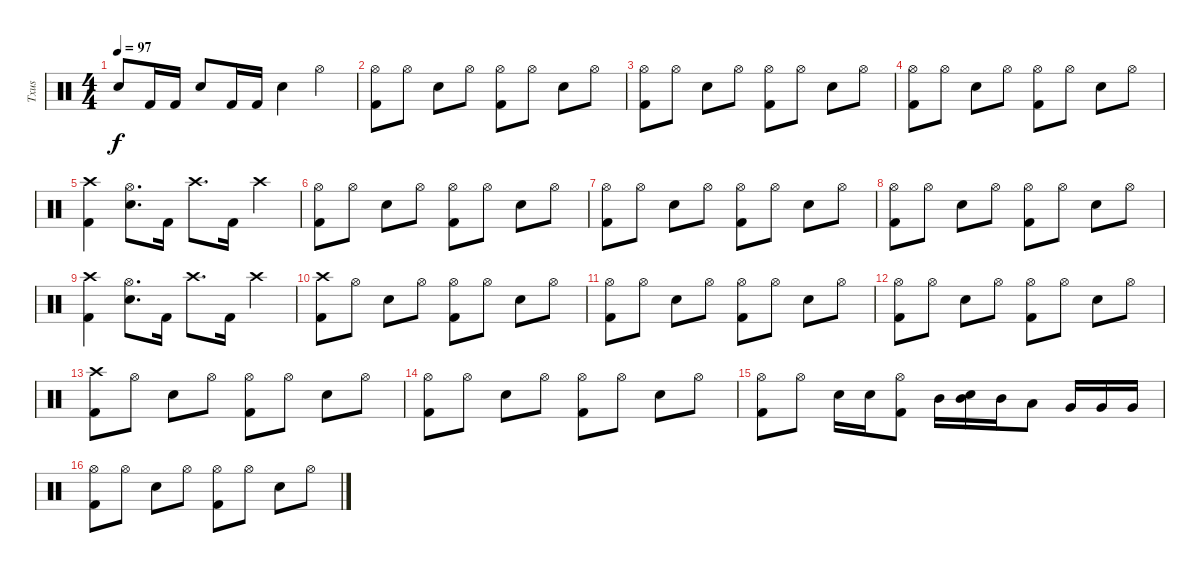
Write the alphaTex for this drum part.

\track ("Txus" "Txus") {instrument percussion}
\staff {score}
\articulation defaults
\ts (4 4)
\tempo 97
\clef neutral
\ks c "Snare (hit) 2".8{dy f} "Kick (hit) 2".16 "Kick (hit) 2".16 "Snare (hit) 2".8 "Kick (hit) 2".16 "Kick (hit) 2".16 "Snare (hit) 2".4 "Hi-Hat (open)".4
|
("Hi-Hat (open)" "Kick (hit) 2").8 "Hi-Hat (open)".8 "Snare (hit) 2".8 "Hi-Hat (open)".8 ("Hi-Hat (open)" "Kick (hit) 2").8 "Hi-Hat (open)".8 "Snare (hit) 2".8 "Hi-Hat (open)".8 |
("Hi-Hat (open)" "Kick (hit) 2").8 "Hi-Hat (open)".8 "Snare (hit) 2".8 "Hi-Hat (open)".8 ("Hi-Hat (open)" "Kick (hit) 2").8 "Hi-Hat (open)".8 "Snare (hit) 2".8 "Hi-Hat (open)".8 |
("Hi-Hat (open)" "Kick (hit) 2").8 "Hi-Hat (open)".8 "Snare (hit) 2".8 "Hi-Hat (open)".8 ("Hi-Hat (open)" "Kick (hit) 2").8 "Hi-Hat (open)".8 "Snare (hit) 2".8 "Hi-Hat (open)".8 |
("Crash high (hit)" "Kick (hit) 2").4 ("Hi-Hat (open)" "Snare (hit) 2").8{d} "Kick (hit) 2".16 "Crash high (hit)".8{d} "Kick (hit) 2".16 "Crash high (hit)".4 |
("Hi-Hat (open)" "Kick (hit) 2").8 "Hi-Hat (open)".8 "Snare (hit) 2".8 "Hi-Hat (open)".8 ("Hi-Hat (open)" "Kick (hit) 2").8 "Hi-Hat (open)".8 "Snare (hit) 2".8 "Hi-Hat (open)".8 |
("Hi-Hat (open)" "Kick (hit) 2").8 "Hi-Hat (open)".8 "Snare (hit) 2".8 "Hi-Hat (open)".8 ("Hi-Hat (open)" "Kick (hit) 2").8 "Hi-Hat (open)".8 "Snare (hit) 2".8 "Hi-Hat (open)".8 |
("Hi-Hat (open)" "Kick (hit) 2").8 "Hi-Hat (open)".8 "Snare (hit) 2".8 "Hi-Hat (open)".8 ("Hi-Hat (open)" "Kick (hit) 2").8 "Hi-Hat (open)".8 "Snare (hit) 2".8 "Hi-Hat (open)".8 |
("Crash high (hit)" "Kick (hit) 2").4 ("Hi-Hat (open)" "Snare (hit) 2").8{d} "Kick (hit) 2".16 "Crash high (hit)".8{d} "Kick (hit) 2".16 "Crash high (hit)".4 |
("Crash high (hit)" "Kick (hit) 2").8 "Hi-Hat (open)".8 "Snare (hit) 2".8 "Hi-Hat (open)".8 ("Hi-Hat (open)" "Kick (hit) 2").8 "Hi-Hat (open)".8 "Snare (hit) 2".8 "Hi-Hat (open)".8 |
("Hi-Hat (open)" "Kick (hit) 2").8 "Hi-Hat (open)".8 "Snare (hit) 2".8 "Hi-Hat (open)".8 ("Hi-Hat (open)" "Kick (hit) 2").8 "Hi-Hat (open)".8 "Snare (hit) 2".8 "Hi-Hat (open)".8 |
("Hi-Hat (open)" "Kick (hit) 2").8 "Hi-Hat (open)".8 "Snare (hit) 2".8 "Hi-Hat (open)".8 ("Hi-Hat (open)" "Kick (hit) 2").8 "Hi-Hat (open)".8 "Snare (hit) 2".8 "Hi-Hat (open)".8 |
("Crash high (hit)" "Kick (hit) 2").8 "Hi-Hat (open)".8 "Snare (hit) 2".8 "Hi-Hat (open)".8 ("Hi-Hat (open)" "Kick (hit) 2").8 "Hi-Hat (open)".8 "Snare (hit) 2".8 "Hi-Hat (open)".8 |
("Hi-Hat (open)" "Kick (hit) 2").8 "Hi-Hat (open)".8 "Snare (hit) 2".8 "Hi-Hat (open)".8 ("Hi-Hat (open)" "Kick (hit) 2").8 "Hi-Hat (open)".8 "Snare (hit) 2".8 "Hi-Hat (open)".8 |
("Hi-Hat (open)" "Kick (hit) 2").8 "Hi-Hat (open)".8 "Snare (hit) 2".16 "Snare (hit) 2".16 ("Hi-Hat (open)" "Kick (hit) 2").8 "Mid Tom (hit)".16 ("Mid Tom (hit)" "Snare (hit) 2").16 "Mid Tom (hit)".16 "Low Tom (hit)".8 "Very Low Tom (hit)".16 "Very Low Tom (hit)".16 "Very Low Tom (hit)".16 |
("Hi-Hat (open)" "Kick (hit) 2").8 "Hi-Hat (open)".8 "Snare (hit) 2".8 "Hi-Hat (open)".8 ("Hi-Hat (open)" "Kick (hit) 2").8 "Hi-Hat (open)".8 "Snare (hit) 2".8 "Hi-Hat (open)".8
